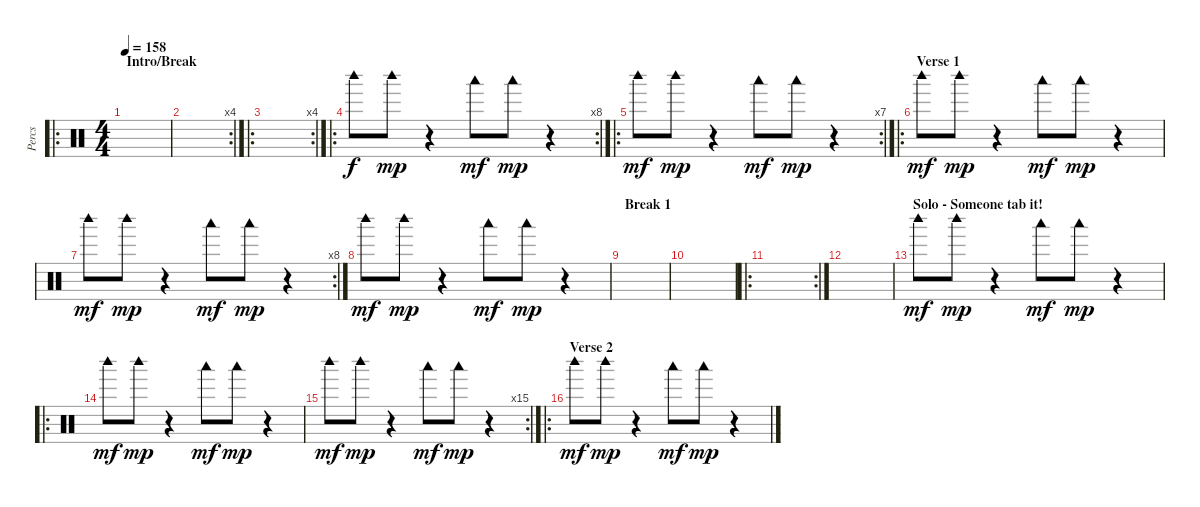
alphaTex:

\track ("Percs" "Percs") {instrument percussion}
\staff {score}
\articulation defaults
\ro
\ts (4 4)
\section ("" "Intro/Break")
\tempo 158
\clef neutral
\ks c
|
\rc 4
|
\ro
\rc 4
|
\ro
\rc 8 "Woodblock high (hit)".8 "Woodblock high (hit)".8{dy mp}
r.4 "Woodblock low (hit)".8{dy mf} "Woodblock low (hit)".8{dy mp} r.4 |
\ro
\rc 7 "Woodblock high (hit)".8{dy mf} "Woodblock high (hit)".8{dy mp}
r.4 "Woodblock low (hit)".8{dy mf} "Woodblock low (hit)".8{dy mp} r.4 |
\ro
\section ("" "Verse 1")
"Woodblock high (hit)".8{dy mf} "Woodblock high (hit)".8{dy mp} r.4 "Woodblock low (hit)".8{dy mf} "Woodblock low (hit)".8{dy mp} r.4 |
\rc 8 "Woodblock high (hit)".8{dy mf} "Woodblock high (hit)".8{dy mp}
r.4 "Woodblock low (hit)".8{dy mf} "Woodblock low (hit)".8{dy mp} r.4 |
"Woodblock high (hit)".8{dy mf} "Woodblock high (hit)".8{dy mp} r.4 "Woodblock low (hit)".8{dy mf} "Woodblock low (hit)".8{dy mp} r.4 |
\section ("" "Break 1")
|
|
\ro
\rc 2
|
|
\section ("" "Solo - Someone tab it!")
"Woodblock high (hit)".8{dy mf} "Woodblock high (hit)".8{dy mp} r.4 "Woodblock low (hit)".8{dy mf} "Woodblock low (hit)".8{dy mp} r.4 |
\ro "Woodblock high (hit)".8{dy mf} "Woodblock high (hit)".8{dy mp}
r.4 "Woodblock low (hit)".8{dy mf} "Woodblock low (hit)".8{dy mp} r.4 |
\rc 15 "Woodblock high (hit)".8{dy mf} "Woodblock high (hit)".8{dy mp}
r.4 "Woodblock low (hit)".8{dy mf} "Woodblock low (hit)".8{dy mp} r.4 |
\ro
\section ("" "Verse 2")
"Woodblock high (hit)".8{dy mf} "Woodblock high (hit)".8{dy mp} r.4 "Woodblock low (hit)".8{dy mf} "Woodblock low (hit)".8{dy mp} r.4
